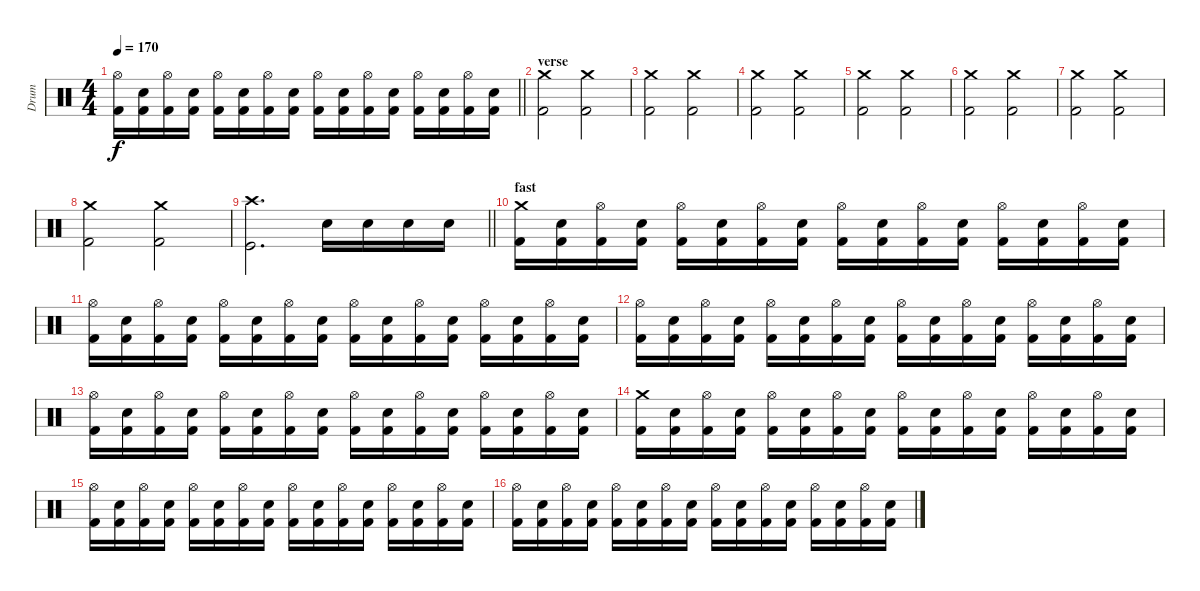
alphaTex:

\track ("Drum" "Drum") {instrument percussion}
\staff {score}
\articulation defaults
\ts (4 4)
\tempo 170
\clef neutral
\barLineRight lightlight
\ks c
("Hi-Hat (open)" "Kick (hit) 2").16{dy f} ("Snare (hit) 2" "Kick (hit) 2").16 ("Hi-Hat (open)" "Kick (hit) 2").16 ("Snare (hit) 2" "Kick (hit) 2").16 ("Hi-Hat (open)" "Kick (hit) 2").16 ("Snare (hit) 2" "Kick (hit) 2").16 ("Hi-Hat (open)" "Kick (hit) 2").16 ("Snare (hit) 2" "Kick (hit) 2").16 ("Hi-Hat (open)" "Kick (hit) 2").16 ("Snare (hit) 2" "Kick (hit) 2").16 ("Hi-Hat (open)" "Kick (hit) 2").16 ("Snare (hit) 2" "Kick (hit) 2").16 ("Hi-Hat (open)" "Kick (hit) 2").16 ("Snare (hit) 2" "Kick (hit) 2").16 ("Hi-Hat (open)" "Kick (hit) 2").16 ("Snare (hit) 2" "Kick (hit) 2").16 |
\section ("" "verse")
("Crash medium (hit)" "Kick (hit) 2").2 ("Crash medium (hit)" "Kick (hit) 2").2 |
("Crash medium (hit)" "Kick (hit) 2").2 ("Crash medium (hit)" "Kick (hit) 2").2 |
("Crash medium (hit)" "Kick (hit) 2").2 ("Crash medium (hit)" "Kick (hit) 2").2 |
("Crash medium (hit)" "Kick (hit) 2").2 ("Crash medium (hit)" "Kick (hit) 2").2 |
("Crash medium (hit)" "Kick (hit) 2").2 ("Crash medium (hit)" "Kick (hit) 2").2 |
("Crash medium (hit)" "Kick (hit) 2").2 ("Crash medium (hit)" "Kick (hit) 2").2 |
("Crash medium (hit)" "Kick (hit) 2").2 ("Crash medium (hit)" "Kick (hit) 2").2 |
\barLineRight lightlight
("Crash high (hit)" "Kick (hit)").2{d} "Snare (hit) 2".16 "Snare (hit) 2".16 "Snare (hit) 2".16 "Snare (hit) 2".16 |
\section ("" "fast")
("Crash medium (hit)" "Kick (hit) 2").16 ("Snare (hit) 2" "Kick (hit) 2").16 ("Hi-Hat (open)" "Kick (hit) 2").16 ("Snare (hit) 2" "Kick (hit) 2").16 ("Hi-Hat (open)" "Kick (hit) 2").16 ("Snare (hit) 2" "Kick (hit) 2").16 ("Hi-Hat (open)" "Kick (hit) 2").16 ("Snare (hit) 2" "Kick (hit) 2").16 ("Hi-Hat (open)" "Kick (hit) 2").16 ("Snare (hit) 2" "Kick (hit) 2").16 ("Hi-Hat (open)" "Kick (hit) 2").16 ("Snare (hit) 2" "Kick (hit) 2").16 ("Hi-Hat (open)" "Kick (hit) 2").16 ("Snare (hit) 2" "Kick (hit) 2").16 ("Hi-Hat (open)" "Kick (hit) 2").16 ("Snare (hit) 2" "Kick (hit) 2").16 |
("Hi-Hat (open)" "Kick (hit) 2").16 ("Snare (hit) 2" "Kick (hit) 2").16 ("Hi-Hat (open)" "Kick (hit) 2").16 ("Snare (hit) 2" "Kick (hit) 2").16 ("Hi-Hat (open)" "Kick (hit) 2").16 ("Snare (hit) 2" "Kick (hit) 2").16 ("Hi-Hat (open)" "Kick (hit) 2").16 ("Snare (hit) 2" "Kick (hit) 2").16 ("Hi-Hat (open)" "Kick (hit) 2").16 ("Snare (hit) 2" "Kick (hit) 2").16 ("Hi-Hat (open)" "Kick (hit) 2").16 ("Snare (hit) 2" "Kick (hit) 2").16 ("Hi-Hat (open)" "Kick (hit) 2").16 ("Snare (hit) 2" "Kick (hit) 2").16 ("Hi-Hat (open)" "Kick (hit) 2").16 ("Snare (hit) 2" "Kick (hit) 2").16 |
("Hi-Hat (open)" "Kick (hit) 2").16 ("Snare (hit) 2" "Kick (hit) 2").16 ("Hi-Hat (open)" "Kick (hit) 2").16 ("Snare (hit) 2" "Kick (hit) 2").16 ("Hi-Hat (open)" "Kick (hit) 2").16 ("Snare (hit) 2" "Kick (hit) 2").16 ("Hi-Hat (open)" "Kick (hit) 2").16 ("Snare (hit) 2" "Kick (hit) 2").16 ("Hi-Hat (open)" "Kick (hit) 2").16 ("Snare (hit) 2" "Kick (hit) 2").16 ("Hi-Hat (open)" "Kick (hit) 2").16 ("Snare (hit) 2" "Kick (hit) 2").16 ("Hi-Hat (open)" "Kick (hit) 2").16 ("Snare (hit) 2" "Kick (hit) 2").16 ("Hi-Hat (open)" "Kick (hit) 2").16 ("Snare (hit) 2" "Kick (hit) 2").16 |
("Hi-Hat (open)" "Kick (hit) 2").16 ("Snare (hit) 2" "Kick (hit) 2").16 ("Hi-Hat (open)" "Kick (hit) 2").16 ("Snare (hit) 2" "Kick (hit) 2").16 ("Hi-Hat (open)" "Kick (hit) 2").16 ("Snare (hit) 2" "Kick (hit) 2").16 ("Hi-Hat (open)" "Kick (hit) 2").16 ("Snare (hit) 2" "Kick (hit) 2").16 ("Hi-Hat (open)" "Kick (hit) 2").16 ("Snare (hit) 2" "Kick (hit) 2").16 ("Hi-Hat (open)" "Kick (hit) 2").16 ("Snare (hit) 2" "Kick (hit) 2").16 ("Hi-Hat (open)" "Kick (hit) 2").16 ("Snare (hit) 2" "Kick (hit) 2").16 ("Hi-Hat (open)" "Kick (hit) 2").16 ("Snare (hit) 2" "Kick (hit) 2").16 |
("Crash medium (hit)" "Kick (hit) 2").16 ("Snare (hit) 2" "Kick (hit) 2").16 ("Hi-Hat (open)" "Kick (hit) 2").16 ("Snare (hit) 2" "Kick (hit) 2").16 ("Hi-Hat (open)" "Kick (hit) 2").16 ("Snare (hit) 2" "Kick (hit) 2").16 ("Hi-Hat (open)" "Kick (hit) 2").16 ("Snare (hit) 2" "Kick (hit) 2").16 ("Hi-Hat (open)" "Kick (hit) 2").16 ("Snare (hit) 2" "Kick (hit) 2").16 ("Hi-Hat (open)" "Kick (hit) 2").16 ("Snare (hit) 2" "Kick (hit) 2").16 ("Hi-Hat (open)" "Kick (hit) 2").16 ("Snare (hit) 2" "Kick (hit) 2").16 ("Hi-Hat (open)" "Kick (hit) 2").16 ("Snare (hit) 2" "Kick (hit) 2").16 |
("Hi-Hat (open)" "Kick (hit) 2").16 ("Snare (hit) 2" "Kick (hit) 2").16 ("Hi-Hat (open)" "Kick (hit) 2").16 ("Snare (hit) 2" "Kick (hit) 2").16 ("Hi-Hat (open)" "Kick (hit) 2").16 ("Snare (hit) 2" "Kick (hit) 2").16 ("Hi-Hat (open)" "Kick (hit) 2").16 ("Snare (hit) 2" "Kick (hit) 2").16 ("Hi-Hat (open)" "Kick (hit) 2").16 ("Snare (hit) 2" "Kick (hit) 2").16 ("Hi-Hat (open)" "Kick (hit) 2").16 ("Snare (hit) 2" "Kick (hit) 2").16 ("Hi-Hat (open)" "Kick (hit) 2").16 ("Snare (hit) 2" "Kick (hit) 2").16 ("Hi-Hat (open)" "Kick (hit) 2").16 ("Snare (hit) 2" "Kick (hit) 2").16 |
("Hi-Hat (open)" "Kick (hit) 2").16 ("Snare (hit) 2" "Kick (hit) 2").16 ("Hi-Hat (open)" "Kick (hit) 2").16 ("Snare (hit) 2" "Kick (hit) 2").16 ("Hi-Hat (open)" "Kick (hit) 2").16 ("Snare (hit) 2" "Kick (hit) 2").16 ("Hi-Hat (open)" "Kick (hit) 2").16 ("Snare (hit) 2" "Kick (hit) 2").16 ("Hi-Hat (open)" "Kick (hit) 2").16 ("Snare (hit) 2" "Kick (hit) 2").16 ("Hi-Hat (open)" "Kick (hit) 2").16 ("Snare (hit) 2" "Kick (hit) 2").16 ("Hi-Hat (open)" "Kick (hit) 2").16 ("Snare (hit) 2" "Kick (hit) 2").16 ("Hi-Hat (open)" "Kick (hit) 2").16 ("Snare (hit) 2" "Kick (hit) 2").16
